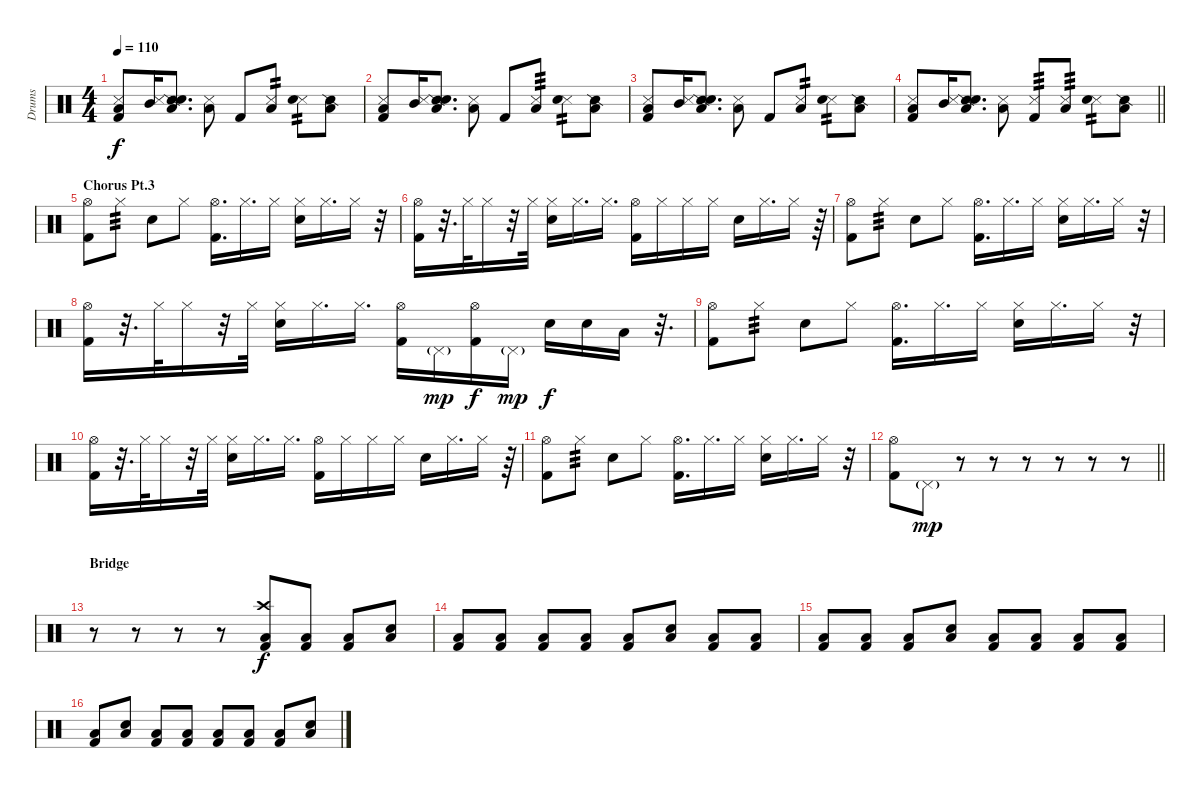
\track ("Drums" "Drums") {instrument percussion}
\staff {score}
\articulation defaults
\ts (4 4)
\tempo 110
\clef neutral
\ks c
("Snare (side stick) 3" "Low Tom (hit)" "Kick (hit) 2").8{dy f} ("Snare (side stick) 3" "Mid Tom (hit)").16 ("Snare (side stick) 2" "Low Tom (hit)" "Snare (hit) 2").8{d} ("Snare (side stick) 3" "Low Tom (hit)").8 "Kick (hit) 2".8 ("Snare (side stick) 3" "Low Tom (hit)").8{tp 2} ("Snare (side stick) 3" "Snare (hit) 2").8{tp 2} ("Snare (side stick) 2" "Low Tom (hit)").8 |
("Snare (side stick) 3" "Low Tom (hit)" "Kick (hit) 2").8 ("Snare (side stick) 3" "Mid Tom (hit)").16 ("Snare (side stick) 2" "Low Tom (hit)" "Snare (hit) 2").8{d} ("Snare (side stick) 3" "Low Tom (hit)").8 "Kick (hit) 2".8 ("Snare (side stick) 3" "Low Tom (hit)").8{tp 3} ("Snare (side stick) 3" "Snare (hit) 2").8{tp 2} ("Snare (side stick) 2" "Low Tom (hit)").8 |
("Snare (side stick) 3" "Low Tom (hit)" "Kick (hit) 2").8 ("Snare (side stick) 3" "Mid Tom (hit)").16 ("Snare (side stick) 2" "Low Tom (hit)" "Snare (hit) 2").8{d} ("Snare (side stick) 3" "Low Tom (hit)").8 "Kick (hit) 2".8 ("Snare (side stick) 3" "Low Tom (hit)").8{tp 2} ("Snare (side stick) 3" "Snare (hit) 2").8{tp 2} ("Snare (side stick) 2" "Low Tom (hit)").8 |
\barLineRight lightlight
("Snare (side stick) 3" "Low Tom (hit)" "Kick (hit) 2").8 ("Snare (side stick) 3" "Mid Tom (hit)").16 ("Snare (side stick) 2" "Low Tom (hit)" "Snare (hit) 2").8{d} ("Snare (side stick) 3" "Low Tom (hit)").8 ("Snare (side stick) 3" "Kick (hit) 2").8{tp 3} ("Snare (side stick) 3" "Low Tom (hit)").8{tp 3} ("Snare (side stick) 3" "Snare (hit) 2").8{tp 2} ("Snare (side stick) 2" "Low Tom (hit)").8 |
\section ("" "Chorus Pt.3")
("Hi-Hat (open)" "Kick (hit) 2").8 "Hi-Hat (closed)".8{tp 3} "Snare (hit) 2".8 "Hi-Hat (closed)".8 ("Hi-Hat (open)" "Kick (hit) 2").16{d} "Hi-Hat (closed)".16{d} "Hi-Hat (closed)".16 ("Hi-Hat (closed)" "Snare (hit) 2").16 "Hi-Hat (closed)".16{d} "Hi-Hat (closed)".16 r.32 |
("Hi-Hat (open)" "Kick (hit) 2").16 r.32{d} "Hi-Hat (closed)".32 "Hi-Hat (closed)".16 r.32 "Hi-Hat (closed)".32 ("Hi-Hat (closed)" "Snare (hit) 2").16 "Hi-Hat (closed)".16{d} "Hi-Hat (closed)".16{d} ("Hi-Hat (open)" "Kick (hit) 2").16 "Hi-Hat (closed)".16 "Hi-Hat (closed)".16 "Hi-Hat (closed)".16 "Snare (hit) 2".16 "Hi-Hat (closed)".16{d} "Hi-Hat (closed)".16 r.64 |
("Hi-Hat (open)" "Kick (hit) 2").8 "Hi-Hat (closed)".8{tp 3} "Snare (hit) 2".8 "Hi-Hat (closed)".8 ("Hi-Hat (open)" "Kick (hit) 2").16{d} "Hi-Hat (closed)".16{d} "Hi-Hat (closed)".16 ("Hi-Hat (closed)" "Snare (hit) 2").16 "Hi-Hat (closed)".16{d} "Hi-Hat (closed)".16 r.32 |
("Hi-Hat (open)" "Kick (hit) 2").16 r.32{d} "Hi-Hat (closed)".32 "Hi-Hat (closed)".16 r.32 "Hi-Hat (closed)".32 ("Hi-Hat (closed)" "Snare (hit) 2").16 "Hi-Hat (closed)".16{d} "Hi-Hat (closed)".16{d} ("Hi-Hat (open)" "Kick (hit) 2").16 "Pedal Hi-Hat (hit)"{g}.16{dy mp} ("Hi-Hat (open)" "Kick (hit) 2").16{dy f} "Pedal Hi-Hat (hit)"{g}.16{dy mp} "Snare (hit) 2".16{dy f} "Snare (hit) 2".16 "Low Tom (hit)".16 r.32{d} |
("Hi-Hat (open)" "Kick (hit) 2").8 "Hi-Hat (closed)".8{tp 3} "Snare (hit) 2".8 "Hi-Hat (closed)".8 ("Hi-Hat (open)" "Kick (hit) 2").16{d} "Hi-Hat (closed)".16{d} "Hi-Hat (closed)".16 ("Hi-Hat (closed)" "Snare (hit) 2").16 "Hi-Hat (closed)".16{d} "Hi-Hat (closed)".16 r.32 |
("Hi-Hat (open)" "Kick (hit) 2").16 r.32{d} "Hi-Hat (closed)".32 "Hi-Hat (closed)".16 r.32 "Hi-Hat (closed)".32 ("Hi-Hat (closed)" "Snare (hit) 2").16 "Hi-Hat (closed)".16{d} "Hi-Hat (closed)".16{d} ("Hi-Hat (open)" "Kick (hit) 2").16 "Hi-Hat (closed)".16 "Hi-Hat (closed)".16 "Hi-Hat (closed)".16 "Snare (hit) 2".16 "Hi-Hat (closed)".16{d} "Hi-Hat (closed)".16 r.64 |
("Hi-Hat (open)" "Kick (hit) 2").8 "Hi-Hat (closed)".8{tp 3} "Snare (hit) 2".8 "Hi-Hat (closed)".8 ("Hi-Hat (open)" "Kick (hit) 2").16{d} "Hi-Hat (closed)".16{d} "Hi-Hat (closed)".16 ("Hi-Hat (closed)" "Snare (hit) 2").16 "Hi-Hat (closed)".16{d} "Hi-Hat (closed)".16 r.32 |
\barLineRight lightlight
("Hi-Hat (open)" "Kick (hit) 2").8 "Pedal Hi-Hat (hit)"{g}.8{dy mp} r.8 r.8 r.8 r.8 r.8 r.8 |
\section ("" "Bridge")
r.8 r.8 r.8 r.8 ("Crash high (hit)" "Low Floor Tom (hit)" "Kick (hit) 2").8{dy f} ("Low Floor Tom (hit)" "Kick (hit) 2").8 ("Low Floor Tom (hit)" "Kick (hit) 2").8 ("Low Floor Tom (hit)" "Snare (hit) 2").8 |
("Low Floor Tom (hit)" "Kick (hit) 2").8 ("Low Floor Tom (hit)" "Kick (hit) 2").8 ("Low Floor Tom (hit)" "Kick (hit) 2").8 ("Low Floor Tom (hit)" "Kick (hit) 2").8 ("Low Floor Tom (hit)" "Kick (hit) 2").8 ("Low Floor Tom (hit)" "Snare (hit) 2").8 ("Low Floor Tom (hit)" "Kick (hit) 2").8 ("Low Floor Tom (hit)" "Kick (hit) 2").8 |
("Low Floor Tom (hit)" "Kick (hit) 2").8 ("Low Floor Tom (hit)" "Kick (hit) 2").8 ("Low Floor Tom (hit)" "Kick (hit) 2").8 ("Low Floor Tom (hit)" "Snare (hit) 2").8 ("Low Floor Tom (hit)" "Kick (hit) 2").8 ("Low Floor Tom (hit)" "Kick (hit) 2").8 ("Low Floor Tom (hit)" "Kick (hit) 2").8 ("Low Floor Tom (hit)" "Kick (hit) 2").8 |
("Low Floor Tom (hit)" "Kick (hit) 2").8 ("Low Floor Tom (hit)" "Snare (hit) 2").8 ("Low Floor Tom (hit)" "Kick (hit) 2").8 ("Low Floor Tom (hit)" "Kick (hit) 2").8 ("Low Floor Tom (hit)" "Kick (hit) 2").8 ("Low Floor Tom (hit)" "Kick (hit) 2").8 ("Low Floor Tom (hit)" "Kick (hit) 2").8 ("Low Floor Tom (hit)" "Snare (hit) 2").8
